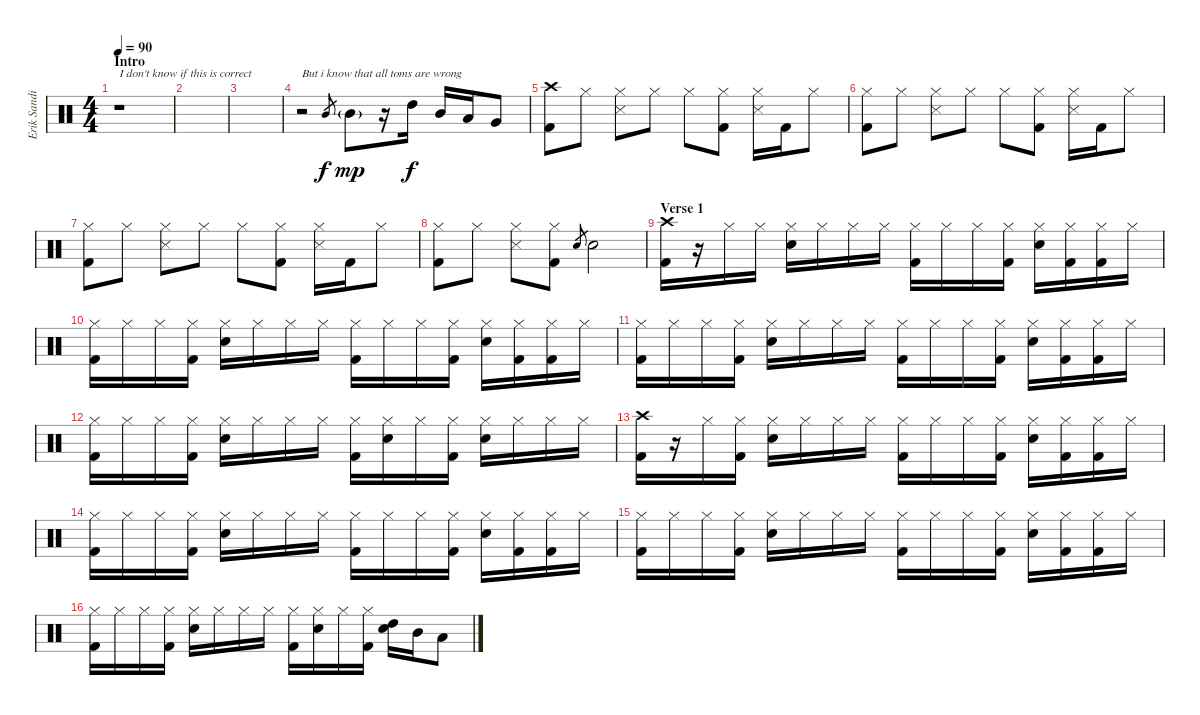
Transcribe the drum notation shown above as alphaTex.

\track ("Erik Sandin" "Erik Sandi") {instrument percussion}
\staff {score}
\articulation defaults
\ts (4 4)
\section ("" "Intro")
\tempo 90
\clef neutral
\ks c
r.1{txt "I don't know if this is correct" dy f} |
|
|
r.2{txt "But i know that all toms are wrong"} "Mid Tom (hit)".8{gr} "Mid Tom (hit)"{g}.8{dy mp} r.16 "High Tom (hit)".16{dy f} "Mid Tom (hit)".16 "Low Tom (hit)".16 "Very Low Tom (hit)".8 |
("Crash high (hit)" "Kick (hit) 2").8 "Hi-Hat (closed)".8 ("Hi-Hat (closed)" "Snare (side stick) 3").8 "Hi-Hat (closed)".8 "Hi-Hat (closed)".8 ("Hi-Hat (closed)" "Kick (hit) 2").8 ("Hi-Hat (closed)" "Snare (side stick) 3").16 "Kick (hit) 2".16 "Hi-Hat (closed)".8 |
("Hi-Hat (closed)" "Kick (hit) 2").8 "Hi-Hat (closed)".8 ("Hi-Hat (closed)" "Snare (side stick) 3").8 "Hi-Hat (closed)".8 "Hi-Hat (closed)".8 ("Hi-Hat (closed)" "Kick (hit) 2").8 ("Hi-Hat (closed)" "Snare (side stick) 3").16 "Kick (hit) 2".16 "Hi-Hat (closed)".8 |
("Hi-Hat (closed)" "Kick (hit) 2").8 "Hi-Hat (closed)".8 ("Hi-Hat (closed)" "Snare (side stick) 3").8 "Hi-Hat (closed)".8 "Hi-Hat (closed)".8 ("Hi-Hat (closed)" "Kick (hit) 2").8 ("Hi-Hat (closed)" "Snare (side stick) 3").16 "Kick (hit) 2".16 "Hi-Hat (closed)".8 |
("Hi-Hat (closed)" "Kick (hit) 2").8 "Hi-Hat (closed)".8 ("Hi-Hat (closed)" "Snare (side stick) 3").8 ("Hi-Hat (closed)" "Kick (hit) 2").8 "Electric Snare (hit)".8{gr} "Electric Snare (hit)".2 |
\section ("" "Verse 1")
("Crash high (hit)" "Kick (hit) 2").16 r.16 "Hi-Hat (closed)".16 "Hi-Hat (closed)".16 ("Hi-Hat (closed)" "Electric Snare (hit)").16 "Hi-Hat (closed)".16 "Hi-Hat (closed)".16 "Hi-Hat (closed)".16 ("Hi-Hat (closed)" "Kick (hit) 2").16 "Hi-Hat (closed)".16 "Hi-Hat (closed)".16 ("Hi-Hat (closed)" "Kick (hit) 2").16 ("Hi-Hat (closed)" "Electric Snare (hit)").16 ("Hi-Hat (closed)" "Kick (hit) 2").16 ("Hi-Hat (closed)" "Kick (hit) 2").16 "Hi-Hat (closed)".16 |
("Hi-Hat (closed)" "Kick (hit) 2").16 "Hi-Hat (closed)".16 "Hi-Hat (closed)".16 ("Hi-Hat (closed)" "Kick (hit) 2").16 ("Hi-Hat (closed)" "Electric Snare (hit)").16 "Hi-Hat (closed)".16 "Hi-Hat (closed)".16 "Hi-Hat (closed)".16 ("Hi-Hat (closed)" "Kick (hit) 2").16 "Hi-Hat (closed)".16 "Hi-Hat (closed)".16 ("Hi-Hat (closed)" "Kick (hit) 2").16 ("Hi-Hat (closed)" "Electric Snare (hit)").16 ("Hi-Hat (closed)" "Kick (hit) 2").16 ("Hi-Hat (closed)" "Kick (hit) 2").16 "Hi-Hat (closed)".16 |
("Hi-Hat (closed)" "Kick (hit) 2").16 "Hi-Hat (closed)".16 "Hi-Hat (closed)".16 ("Hi-Hat (closed)" "Kick (hit) 2").16 ("Hi-Hat (closed)" "Electric Snare (hit)").16 "Hi-Hat (closed)".16 "Hi-Hat (closed)".16 "Hi-Hat (closed)".16 ("Hi-Hat (closed)" "Kick (hit) 2").16 "Hi-Hat (closed)".16 "Hi-Hat (closed)".16 ("Hi-Hat (closed)" "Kick (hit) 2").16 ("Hi-Hat (closed)" "Electric Snare (hit)").16 ("Hi-Hat (closed)" "Kick (hit) 2").16 ("Hi-Hat (closed)" "Kick (hit) 2").16 "Hi-Hat (closed)".16 |
("Hi-Hat (closed)" "Kick (hit) 2").16 "Hi-Hat (closed)".16 "Hi-Hat (closed)".16 ("Hi-Hat (closed)" "Kick (hit) 2").16 ("Hi-Hat (closed)" "Electric Snare (hit)").16 "Hi-Hat (closed)".16 "Hi-Hat (closed)".16 "Hi-Hat (closed)".16 ("Hi-Hat (closed)" "Kick (hit) 2").16 ("Hi-Hat (closed)" "Electric Snare (hit)").16 "Hi-Hat (closed)".16 ("Hi-Hat (closed)" "Kick (hit) 2").16 ("Hi-Hat (closed)" "Electric Snare (hit)").16 "Hi-Hat (closed)".16 "Hi-Hat (closed)".16 "Hi-Hat (closed)".16 |
("Crash high (hit)" "Kick (hit) 2").16 r.16 "Hi-Hat (closed)".16 ("Hi-Hat (closed)" "Kick (hit) 2").16 ("Hi-Hat (closed)" "Electric Snare (hit)").16 "Hi-Hat (closed)".16 "Hi-Hat (closed)".16 "Hi-Hat (closed)".16 ("Hi-Hat (closed)" "Kick (hit) 2").16 "Hi-Hat (closed)".16 "Hi-Hat (closed)".16 ("Hi-Hat (closed)" "Kick (hit) 2").16 ("Hi-Hat (closed)" "Electric Snare (hit)").16 ("Hi-Hat (closed)" "Kick (hit) 2").16 ("Hi-Hat (closed)" "Kick (hit) 2").16 "Hi-Hat (closed)".16 |
("Hi-Hat (closed)" "Kick (hit) 2").16 "Hi-Hat (closed)".16 "Hi-Hat (closed)".16 ("Hi-Hat (closed)" "Kick (hit) 2").16 ("Hi-Hat (closed)" "Electric Snare (hit)").16 "Hi-Hat (closed)".16 "Hi-Hat (closed)".16 "Hi-Hat (closed)".16 ("Hi-Hat (closed)" "Kick (hit) 2").16 "Hi-Hat (closed)".16 "Hi-Hat (closed)".16 ("Hi-Hat (closed)" "Kick (hit) 2").16 ("Hi-Hat (closed)" "Electric Snare (hit)").16 ("Hi-Hat (closed)" "Kick (hit) 2").16 ("Hi-Hat (closed)" "Kick (hit) 2").16 "Hi-Hat (closed)".16 |
("Hi-Hat (closed)" "Kick (hit) 2").16 "Hi-Hat (closed)".16 "Hi-Hat (closed)".16 ("Hi-Hat (closed)" "Kick (hit) 2").16 ("Hi-Hat (closed)" "Electric Snare (hit)").16 "Hi-Hat (closed)".16 "Hi-Hat (closed)".16 "Hi-Hat (closed)".16 ("Hi-Hat (closed)" "Kick (hit) 2").16 "Hi-Hat (closed)".16 "Hi-Hat (closed)".16 ("Hi-Hat (closed)" "Kick (hit) 2").16 ("Hi-Hat (closed)" "Electric Snare (hit)").16 ("Hi-Hat (closed)" "Kick (hit) 2").16 ("Hi-Hat (closed)" "Kick (hit) 2").16 "Hi-Hat (closed)".16 |
("Hi-Hat (closed)" "Kick (hit) 2").16 "Hi-Hat (closed)".16 "Hi-Hat (closed)".16 ("Hi-Hat (closed)" "Kick (hit) 2").16 ("Hi-Hat (closed)" "Electric Snare (hit)").16 "Hi-Hat (closed)".16 "Hi-Hat (closed)".16 "Hi-Hat (closed)".16 ("Hi-Hat (closed)" "Kick (hit) 2").16 ("Hi-Hat (closed)" "Electric Snare (hit)").16 "Hi-Hat (closed)".16 ("Hi-Hat (closed)" "Kick (hit) 2").16 ("High Tom (hit)" "Electric Snare (hit)").16 "Mid Tom (hit)".16 "Low Tom (hit)".8
